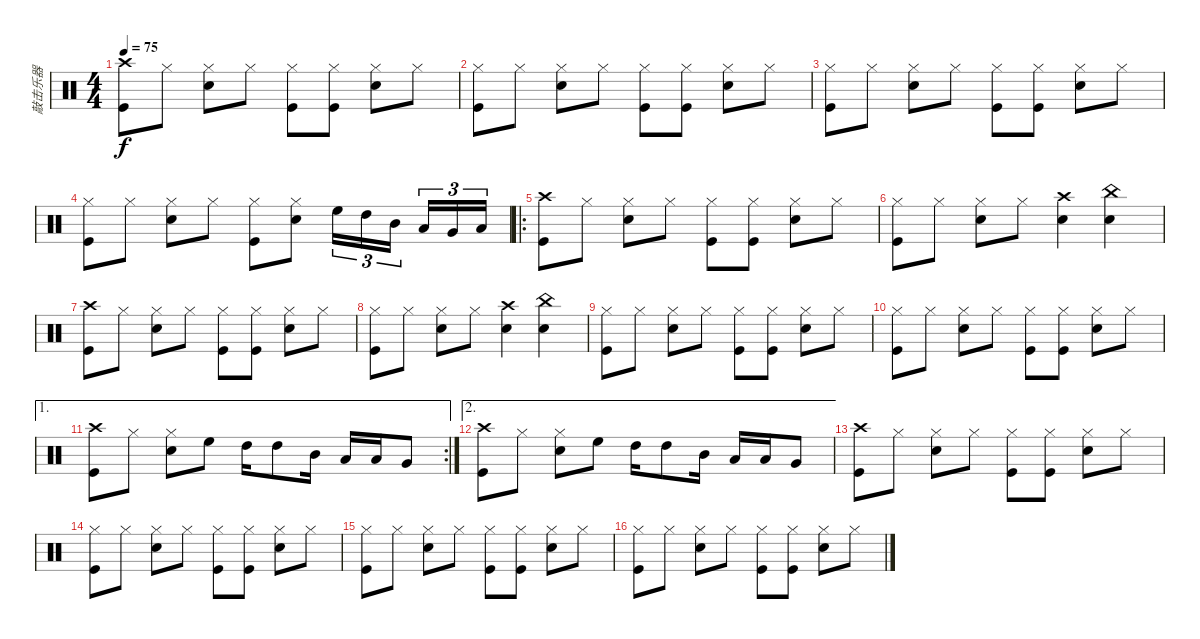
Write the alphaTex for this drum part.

\track ("敲击乐器" "敲击乐器") {instrument percussion}
\staff {score}
\articulation defaults
\ts (4 4)
\tempo 75
\clef neutral
\ks c
("Crash high (hit)" "Kick (hit)").8{dy f} "Hi-Hat (closed)".8 ("Snare (hit) 2" "Hi-Hat (closed)").8 "Hi-Hat (closed)".8 ("Kick (hit)" "Hi-Hat (closed)").8 ("Kick (hit)" "Hi-Hat (closed)").8 ("Snare (hit) 2" "Hi-Hat (closed)").8 "Hi-Hat (closed)".8 |
("Hi-Hat (closed)" "Kick (hit)").8 "Hi-Hat (closed)".8 ("Snare (hit) 2" "Hi-Hat (closed)").8 "Hi-Hat (closed)".8 ("Kick (hit)" "Hi-Hat (closed)").8 ("Kick (hit)" "Hi-Hat (closed)").8 ("Snare (hit) 2" "Hi-Hat (closed)").8 "Hi-Hat (closed)".8 |
("Hi-Hat (closed)" "Kick (hit)").8 "Hi-Hat (closed)".8 ("Snare (hit) 2" "Hi-Hat (closed)").8 "Hi-Hat (closed)".8 ("Kick (hit)" "Hi-Hat (closed)").8 ("Kick (hit)" "Hi-Hat (closed)").8 ("Snare (hit) 2" "Hi-Hat (closed)").8 "Hi-Hat (closed)".8 |
("Hi-Hat (closed)" "Kick (hit)").8 "Hi-Hat (closed)".8 ("Snare (hit) 2" "Hi-Hat (closed)").8 "Hi-Hat (closed)".8 ("Hi-Hat (closed)" "Kick (hit)").8 ("Snare (hit) 2" "Hi-Hat (closed)").8 "High Floor Tom (hit)".16{tu (3 2)} "High Tom (hit)".16{tu (3 2)} "Mid Tom (hit)".16{tu (3 2) beam splitsecondary} "Low Tom (hit)".16{tu (3 2)} "Very Low Tom (hit)".16{tu (3 2)} "Low Floor Tom (hit)".16{tu (3 2)} |
\ro
("Crash high (hit)" "Kick (hit)").8 "Hi-Hat (closed)".8 ("Snare (hit) 2" "Hi-Hat (closed)").8 "Hi-Hat (closed)".8 ("Kick (hit)" "Hi-Hat (closed)").8 ("Kick (hit)" "Hi-Hat (closed)").8 ("Snare (hit) 2" "Hi-Hat (closed)").8 "Hi-Hat (closed)".8 |
("Hi-Hat (closed)" "Kick (hit)").8 "Hi-Hat (closed)".8 ("Snare (hit) 2" "Hi-Hat (closed)").8 "Hi-Hat (closed)".8 ("Snare (hit) 2" "Crash high (hit)").4 ("Snare (hit) 2" "China (hit)").4 |
("Crash high (hit)" "Kick (hit)").8 "Hi-Hat (closed)".8 ("Snare (hit) 2" "Hi-Hat (closed)").8 "Hi-Hat (closed)".8 ("Kick (hit)" "Hi-Hat (closed)").8 ("Kick (hit)" "Hi-Hat (closed)").8 ("Snare (hit) 2" "Hi-Hat (closed)").8 "Hi-Hat (closed)".8 |
("Hi-Hat (closed)" "Kick (hit)").8 "Hi-Hat (closed)".8 ("Snare (hit) 2" "Hi-Hat (closed)").8 "Hi-Hat (closed)".8 ("Snare (hit) 2" "Crash high (hit)").4 ("Snare (hit) 2" "China (hit)").4 |
("Hi-Hat (closed)" "Kick (hit)").8 "Hi-Hat (closed)".8 ("Snare (hit) 2" "Hi-Hat (closed)").8 "Hi-Hat (closed)".8 ("Kick (hit)" "Hi-Hat (closed)").8 ("Kick (hit)" "Hi-Hat (closed)").8 ("Snare (hit) 2" "Hi-Hat (closed)").8 "Hi-Hat (closed)".8 |
("Hi-Hat (closed)" "Kick (hit)").8 "Hi-Hat (closed)".8 ("Snare (hit) 2" "Hi-Hat (closed)").8 "Hi-Hat (closed)".8 ("Kick (hit)" "Hi-Hat (closed)").8 ("Kick (hit)" "Hi-Hat (closed)").8 ("Snare (hit) 2" "Hi-Hat (closed)").8 "Hi-Hat (closed)".8 |
\ae 1
\rc 2
("Kick (hit)" "Crash high (hit)").8 "Hi-Hat (closed)".8 ("Snare (hit) 2" "Hi-Hat (closed)").8 "High Floor Tom (hit)".8 "High Tom (hit)".16 "High Tom (hit)".8 "Mid Tom (hit)".16 "Low Tom (hit)".16 "Low Tom (hit)".16 "Very Low Tom (hit)".8 |
\ae 2
("Kick (hit)" "Crash high (hit)").8 "Hi-Hat (closed)".8 ("Snare (hit) 2" "Hi-Hat (closed)").8 "High Floor Tom (hit)".8 "High Tom (hit)".16 "High Tom (hit)".8 "Mid Tom (hit)".16 "Low Tom (hit)".16 "Low Tom (hit)".16 "Very Low Tom (hit)".8 |
("Crash high (hit)" "Kick (hit)").8 "Hi-Hat (closed)".8 ("Snare (hit) 2" "Hi-Hat (closed)").8 "Hi-Hat (closed)".8 ("Kick (hit)" "Hi-Hat (closed)").8 ("Kick (hit)" "Hi-Hat (closed)").8 ("Snare (hit) 2" "Hi-Hat (closed)").8 "Hi-Hat (closed)".8 |
("Hi-Hat (closed)" "Kick (hit)").8 "Hi-Hat (closed)".8 ("Snare (hit) 2" "Hi-Hat (closed)").8 "Hi-Hat (closed)".8 ("Kick (hit)" "Hi-Hat (closed)").8 ("Kick (hit)" "Hi-Hat (closed)").8 ("Snare (hit) 2" "Hi-Hat (closed)").8 "Hi-Hat (closed)".8 |
("Hi-Hat (closed)" "Kick (hit)").8 "Hi-Hat (closed)".8 ("Snare (hit) 2" "Hi-Hat (closed)").8 "Hi-Hat (closed)".8 ("Kick (hit)" "Hi-Hat (closed)").8 ("Kick (hit)" "Hi-Hat (closed)").8 ("Snare (hit) 2" "Hi-Hat (closed)").8 "Hi-Hat (closed)".8 |
("Hi-Hat (closed)" "Kick (hit)").8 "Hi-Hat (closed)".8 ("Snare (hit) 2" "Hi-Hat (closed)").8 "Hi-Hat (closed)".8 ("Kick (hit)" "Hi-Hat (closed)").8 ("Kick (hit)" "Hi-Hat (closed)").8 ("Snare (hit) 2" "Hi-Hat (closed)").8 "Hi-Hat (closed)".8
